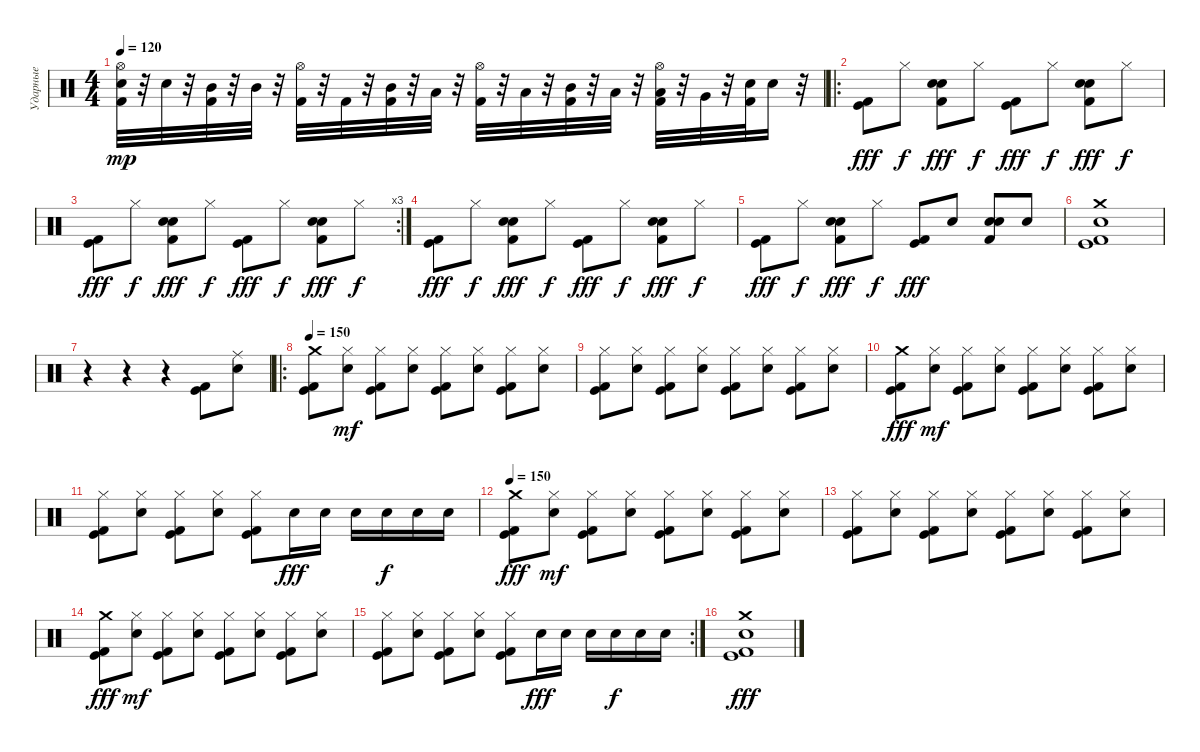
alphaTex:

\track ("Ударные" "Ударные") {instrument percussion}
\staff {score}
\articulation defaults
\ts (4 4)
\tempo 120
\clef neutral
\ks c
("Hi-Hat (open)" "Kick (hit) 2" "Electric Snare (hit)").32{dy mp} r.32 "Electric Snare (hit)".32 r.32 ("Kick (hit) 2" "Mid Tom (hit)").32 r.32 "Mid Tom (hit)".32 r.32 ("Hi-Hat (open)" "Kick (hit) 2").32 r.32 "Kick (hit) 2".32 r.32 ("Kick (hit) 2" "Mid Tom (hit)").32 r.32 "Low Tom (hit)".32 r.32 ("Hi-Hat (open)" "Kick (hit) 2").32 r.32 "Low Tom (hit)".32 r.32 ("Kick (hit) 2" "Mid Tom (hit)").32 r.32 "Low Tom (hit)".32 r.32 ("Hi-Hat (open)" "Kick (hit) 2" "Low Tom (hit)").32 r.32 "Very Low Tom (hit)".32 r.32 ("Kick (hit) 2" "Electric Snare (hit)").32 "Electric Snare (hit)".16 r.32 |
\ro
("Kick (hit) 2" "Kick (hit)").8{dy fff} "Hi-Hat (closed)".8{dy f} ("Snare (hit) 2" "Electric Snare (hit)" "Kick (hit) 2").8{dy fff} "Hi-Hat (closed)".8{dy f} ("Kick (hit) 2" "Kick (hit)").8{dy fff} "Hi-Hat (closed)".8{dy f} ("Snare (hit) 2" "Electric Snare (hit)" "Kick (hit) 2").8{dy fff} "Hi-Hat (closed)".8{dy f} |
\rc 3
("Kick (hit) 2" "Kick (hit)").8{dy fff} "Hi-Hat (closed)".8{dy f} ("Snare (hit) 2" "Electric Snare (hit)" "Kick (hit) 2").8{dy fff} "Hi-Hat (closed)".8{dy f} ("Kick (hit) 2" "Kick (hit)").8{dy fff} "Hi-Hat (closed)".8{dy f} ("Snare (hit) 2" "Electric Snare (hit)" "Kick (hit) 2").8{dy fff} "Hi-Hat (closed)".8{dy f} |
("Kick (hit) 2" "Kick (hit)").8{dy fff} "Hi-Hat (closed)".8{dy f} ("Snare (hit) 2" "Electric Snare (hit)" "Kick (hit) 2").8{dy fff} "Hi-Hat (closed)".8{dy f} ("Kick (hit) 2" "Kick (hit)").8{dy fff} "Hi-Hat (closed)".8{dy f} ("Snare (hit) 2" "Electric Snare (hit)" "Kick (hit) 2").8{dy fff} "Hi-Hat (closed)".8{dy f} |
("Kick (hit) 2" "Kick (hit)").8{dy fff} "Hi-Hat (closed)".8{dy f} ("Snare (hit) 2" "Electric Snare (hit)" "Kick (hit) 2").8{dy fff} "Hi-Hat (closed)".8{dy f} ("Kick (hit) 2" "Kick (hit)").8{dy fff} "Snare (hit) 2".8 ("Snare (hit) 2" "Electric Snare (hit)" "Kick (hit) 2").8 "Snare (hit) 2".8 |
("Crash medium (hit)" "Kick (hit) 2" "Kick (hit)" "Snare (hit) 2").1 |
r.4 r.4 r.4 ("Kick (hit)" "Kick (hit) 2").8 ("Ride (middle)" "Snare (hit) 2").8 |
\ro
\tempo 150
("Crash medium (hit)" "Kick (hit)" "Kick (hit) 2").8 ("Snare (hit) 2" "Hi-Hat (closed)").8{dy mf} ("Kick (hit)" "Kick (hit) 2" "Hi-Hat (closed)").8 ("Snare (hit) 2" "Hi-Hat (closed)").8 ("Kick (hit)" "Kick (hit) 2" "Hi-Hat (closed)").8 ("Snare (hit) 2" "Hi-Hat (closed)").8 ("Kick (hit)" "Kick (hit) 2" "Hi-Hat (closed)").8 ("Snare (hit) 2" "Hi-Hat (closed)").8 |
("Kick (hit)" "Kick (hit) 2" "Hi-Hat (closed)").8 ("Snare (hit) 2" "Hi-Hat (closed)").8 ("Kick (hit)" "Kick (hit) 2" "Hi-Hat (closed)").8 ("Snare (hit) 2" "Hi-Hat (closed)").8 ("Kick (hit)" "Kick (hit) 2" "Hi-Hat (closed)").8 ("Snare (hit) 2" "Hi-Hat (closed)").8 ("Kick (hit)" "Kick (hit) 2" "Hi-Hat (closed)").8 ("Snare (hit) 2" "Hi-Hat (closed)").8 |
("Crash medium (hit)" "Kick (hit)" "Kick (hit) 2").8{dy fff} ("Snare (hit) 2" "Hi-Hat (closed)").8{dy mf} ("Kick (hit)" "Kick (hit) 2" "Hi-Hat (closed)").8 ("Snare (hit) 2" "Hi-Hat (closed)").8 ("Kick (hit)" "Kick (hit) 2" "Hi-Hat (closed)").8 ("Snare (hit) 2" "Hi-Hat (closed)").8 ("Kick (hit)" "Kick (hit) 2" "Hi-Hat (closed)").8 ("Snare (hit) 2" "Hi-Hat (closed)").8 |
("Kick (hit)" "Kick (hit) 2" "Hi-Hat (closed)").8 ("Snare (hit) 2" "Hi-Hat (closed)").8 ("Kick (hit)" "Kick (hit) 2" "Hi-Hat (closed)").8 ("Snare (hit) 2" "Hi-Hat (closed)").8 ("Kick (hit)" "Kick (hit) 2" "Hi-Hat (closed)").8 "Snare (hit) 2".16{dy fff} "Snare (hit) 2".16 "Snare (hit) 2".16 "Snare (hit) 2".16{dy f} "Snare (hit) 2".16 "Snare (hit) 2".16 |
\tempo 150
("Crash medium (hit)" "Kick (hit)" "Kick (hit) 2").8{dy fff} ("Snare (hit) 2" "Hi-Hat (closed)").8{dy mf} ("Kick (hit)" "Kick (hit) 2" "Hi-Hat (closed)").8 ("Snare (hit) 2" "Hi-Hat (closed)").8 ("Kick (hit)" "Kick (hit) 2" "Hi-Hat (closed)").8 ("Snare (hit) 2" "Hi-Hat (closed)").8 ("Kick (hit)" "Kick (hit) 2" "Hi-Hat (closed)").8 ("Snare (hit) 2" "Hi-Hat (closed)").8 |
("Kick (hit)" "Kick (hit) 2" "Hi-Hat (closed)").8 ("Snare (hit) 2" "Hi-Hat (closed)").8 ("Kick (hit)" "Kick (hit) 2" "Hi-Hat (closed)").8 ("Snare (hit) 2" "Hi-Hat (closed)").8 ("Kick (hit)" "Kick (hit) 2" "Hi-Hat (closed)").8 ("Snare (hit) 2" "Hi-Hat (closed)").8 ("Kick (hit)" "Kick (hit) 2" "Hi-Hat (closed)").8 ("Snare (hit) 2" "Hi-Hat (closed)").8 |
("Crash medium (hit)" "Kick (hit)" "Kick (hit) 2").8{dy fff} ("Snare (hit) 2" "Hi-Hat (closed)").8{dy mf} ("Kick (hit)" "Kick (hit) 2" "Hi-Hat (closed)").8 ("Snare (hit) 2" "Hi-Hat (closed)").8 ("Kick (hit)" "Kick (hit) 2" "Hi-Hat (closed)").8 ("Snare (hit) 2" "Hi-Hat (closed)").8 ("Kick (hit)" "Kick (hit) 2" "Hi-Hat (closed)").8 ("Snare (hit) 2" "Hi-Hat (closed)").8 |
\rc 2
("Kick (hit)" "Kick (hit) 2" "Hi-Hat (closed)").8 ("Snare (hit) 2" "Hi-Hat (closed)").8 ("Kick (hit)" "Kick (hit) 2" "Hi-Hat (closed)").8 ("Snare (hit) 2" "Hi-Hat (closed)").8 ("Kick (hit)" "Kick (hit) 2" "Hi-Hat (closed)").8 "Snare (hit) 2".16{dy fff} "Snare (hit) 2".16 "Snare (hit) 2".16 "Snare (hit) 2".16{dy f} "Snare (hit) 2".16 "Snare (hit) 2".16 |
("Snare (hit) 2" "Crash medium (hit)" "Kick (hit) 2" "Kick (hit)").1{dy fff}
